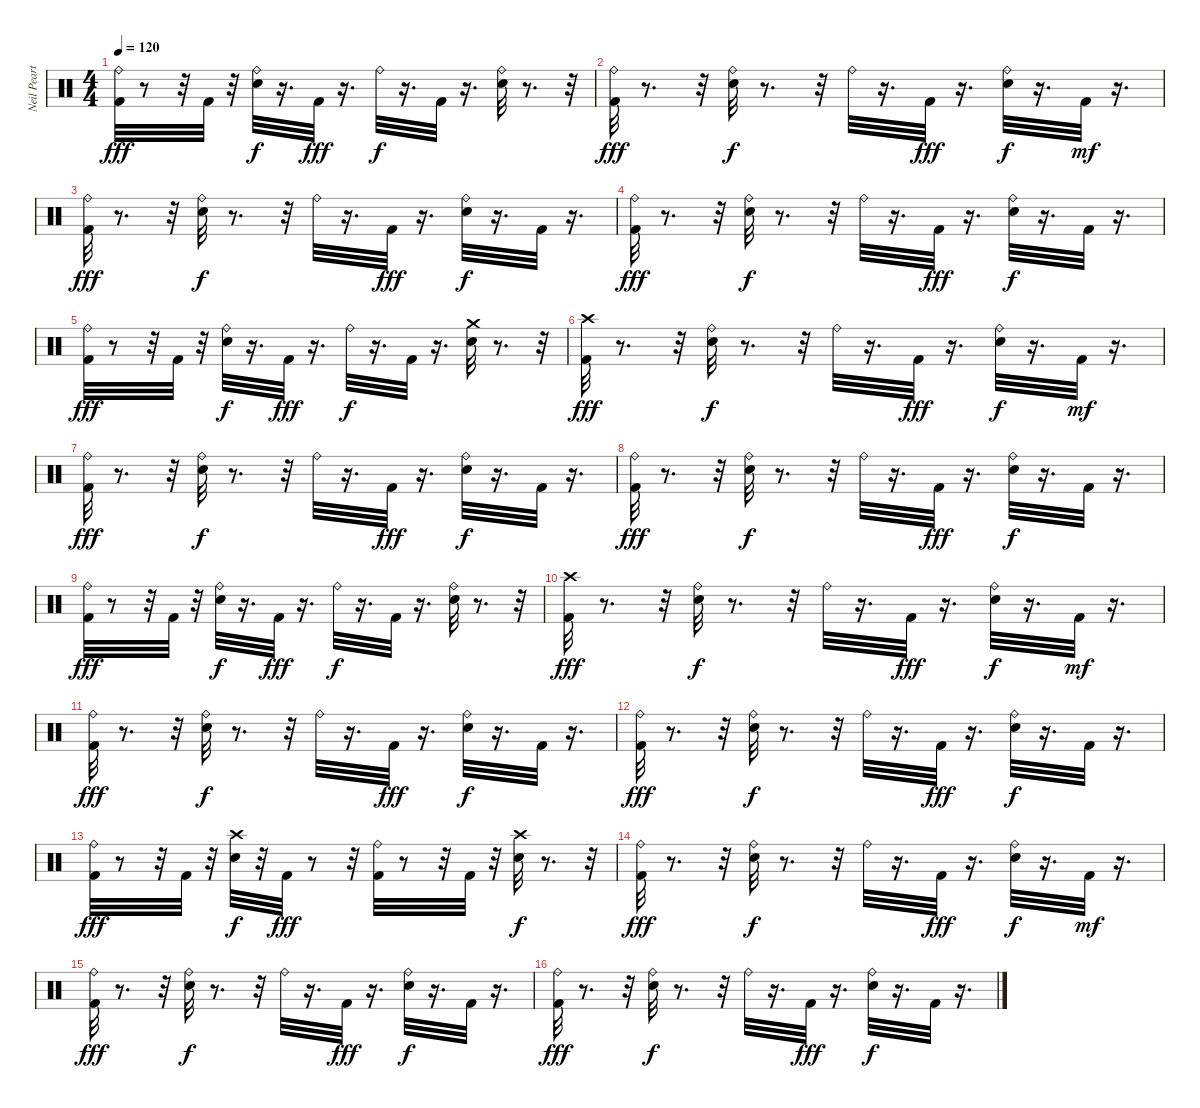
\track ("Neil Peart" "Neil Peart") {instrument percussion}
\staff {score}
\articulation defaults
\ts (4 4)
\tempo 120
\clef neutral
\ks c
("Ride (bell)" "Kick (hit) 2").32{dy fff} r.8 r.32 "Kick (hit) 2".32 r.32 ("Ride (bell)" "Snare (hit) 2").32{dy f} r.16{d} "Kick (hit) 2".32{dy fff} r.16{d} "Ride (bell)".32{dy f} r.16{d} "Kick (hit) 2".32 r.16{d} ("Ride (bell)" "Snare (hit) 2").32 r.8{d} r.32 |
("Ride (bell)" "Kick (hit) 2").32{dy fff} r.8{d} r.32 ("Ride (bell)" "Snare (hit) 2").32{dy f} r.8{d} r.32 "Ride (bell)".32 r.16{d} "Kick (hit) 2".32{dy fff} r.16{d} ("Ride (bell)" "Snare (hit) 2").32{dy f} r.16{d} "Kick (hit) 2".32{dy mf} r.16{d} |
("Ride (bell)" "Kick (hit) 2").32{dy fff} r.8{d} r.32 ("Ride (bell)" "Snare (hit) 2").32{dy f} r.8{d} r.32 "Ride (bell)".32 r.16{d} "Kick (hit) 2".32{dy fff} r.16{d} ("Ride (bell)" "Snare (hit) 2").32{dy f} r.16{d} "Kick (hit) 2".32 r.16{d} |
("Ride (bell)" "Kick (hit) 2").32{dy fff} r.8{d} r.32 ("Ride (bell)" "Snare (hit) 2").32{dy f} r.8{d} r.32 "Ride (bell)".32 r.16{d} "Kick (hit) 2".32{dy fff} r.16{d} ("Ride (bell)" "Snare (hit) 2").32{dy f} r.16{d} "Kick (hit) 2".32 r.16{d} |
("Ride (bell)" "Kick (hit) 2").32{dy fff} r.8 r.32 "Kick (hit) 2".32 r.32 ("Ride (bell)" "Snare (hit) 2").32{dy f} r.16{d} "Kick (hit) 2".32{dy fff} r.16{d} "Ride (bell)".32{dy f} r.16{d} "Kick (hit) 2".32 r.16{d} ("Crash medium (hit)" "Snare (hit) 2").32 r.8{d} r.32 |
("Crash high (hit)" "Kick (hit) 2").32{dy fff} r.8{d} r.32 ("Ride (bell)" "Snare (hit) 2").32{dy f} r.8{d} r.32 "Ride (bell)".32 r.16{d} "Kick (hit) 2".32{dy fff} r.16{d} ("Ride (bell)" "Snare (hit) 2").32{dy f} r.16{d} "Kick (hit) 2".32{dy mf} r.16{d} |
("Ride (bell)" "Kick (hit) 2").32{dy fff} r.8{d} r.32 ("Ride (bell)" "Snare (hit) 2").32{dy f} r.8{d} r.32 "Ride (bell)".32 r.16{d} "Kick (hit) 2".32{dy fff} r.16{d} ("Ride (bell)" "Snare (hit) 2").32{dy f} r.16{d} "Kick (hit) 2".32 r.16{d} |
("Ride (bell)" "Kick (hit) 2").32{dy fff} r.8{d} r.32 ("Ride (bell)" "Snare (hit) 2").32{dy f} r.8{d} r.32 "Ride (bell)".32 r.16{d} "Kick (hit) 2".32{dy fff} r.16{d} ("Ride (bell)" "Snare (hit) 2").32{dy f} r.16{d} "Kick (hit) 2".32 r.16{d} |
("Ride (bell)" "Kick (hit) 2").32{dy fff} r.8 r.32 "Kick (hit) 2".32 r.32 ("Ride (bell)" "Snare (hit) 2").32{dy f} r.16{d} "Kick (hit) 2".32{dy fff} r.16{d} "Ride (bell)".32{dy f} r.16{d} "Kick (hit) 2".32 r.16{d} ("Ride (bell)" "Snare (hit) 2").32 r.8{d} r.32 |
("Crash high (hit)" "Kick (hit) 2").32{dy fff} r.8{d} r.32 ("Ride (bell)" "Snare (hit) 2").32{dy f} r.8{d} r.32 "Ride (bell)".32 r.16{d} "Kick (hit) 2".32{dy fff} r.16{d} ("Ride (bell)" "Snare (hit) 2").32{dy f} r.16{d} "Kick (hit) 2".32{dy mf} r.16{d} |
("Ride (bell)" "Kick (hit) 2").32{dy fff} r.8{d} r.32 ("Ride (bell)" "Snare (hit) 2").32{dy f} r.8{d} r.32 "Ride (bell)".32 r.16{d} "Kick (hit) 2".32{dy fff} r.16{d} ("Ride (bell)" "Snare (hit) 2").32{dy f} r.16{d} "Kick (hit) 2".32 r.16{d} |
("Ride (bell)" "Kick (hit) 2").32{dy fff} r.8{d} r.32 ("Ride (bell)" "Snare (hit) 2").32{dy f} r.8{d} r.32 "Ride (bell)".32 r.16{d} "Kick (hit) 2".32{dy fff} r.16{d} ("Ride (bell)" "Snare (hit) 2").32{dy f} r.16{d} "Kick (hit) 2".32 r.16{d} |
("Ride (bell)" "Kick (hit) 2").32{dy fff} r.8 r.32 "Kick (hit) 2".32 r.32 ("Crash high (hit)" "Snare (hit) 2").32{dy f} r.32 "Kick (hit) 2".32{dy fff} r.8 r.32 ("Kick (hit) 2" "Ride (bell)").32 r.8 r.32 "Kick (hit) 2".32 r.32 ("Snare (hit) 2" "Crash high (hit)").32{dy f} r.8{d} r.32 |
("Ride (bell)" "Kick (hit) 2").32{dy fff} r.8{d} r.32 ("Ride (bell)" "Snare (hit) 2").32{dy f} r.8{d} r.32 "Ride (bell)".32 r.16{d} "Kick (hit) 2".32{dy fff} r.16{d} ("Ride (bell)" "Snare (hit) 2").32{dy f} r.16{d} "Kick (hit) 2".32{dy mf} r.16{d} |
("Ride (bell)" "Kick (hit) 2").32{dy fff} r.8{d} r.32 ("Ride (bell)" "Snare (hit) 2").32{dy f} r.8{d} r.32 "Ride (bell)".32 r.16{d} "Kick (hit) 2".32{dy fff} r.16{d} ("Ride (bell)" "Snare (hit) 2").32{dy f} r.16{d} "Kick (hit) 2".32 r.16{d} |
("Ride (bell)" "Kick (hit) 2").32{dy fff} r.8{d} r.32 ("Ride (bell)" "Snare (hit) 2").32{dy f} r.8{d} r.32 "Ride (bell)".32 r.16{d} "Kick (hit) 2".32{dy fff} r.16{d} ("Ride (bell)" "Snare (hit) 2").32{dy f} r.16{d} "Kick (hit) 2".32 r.16{d}
